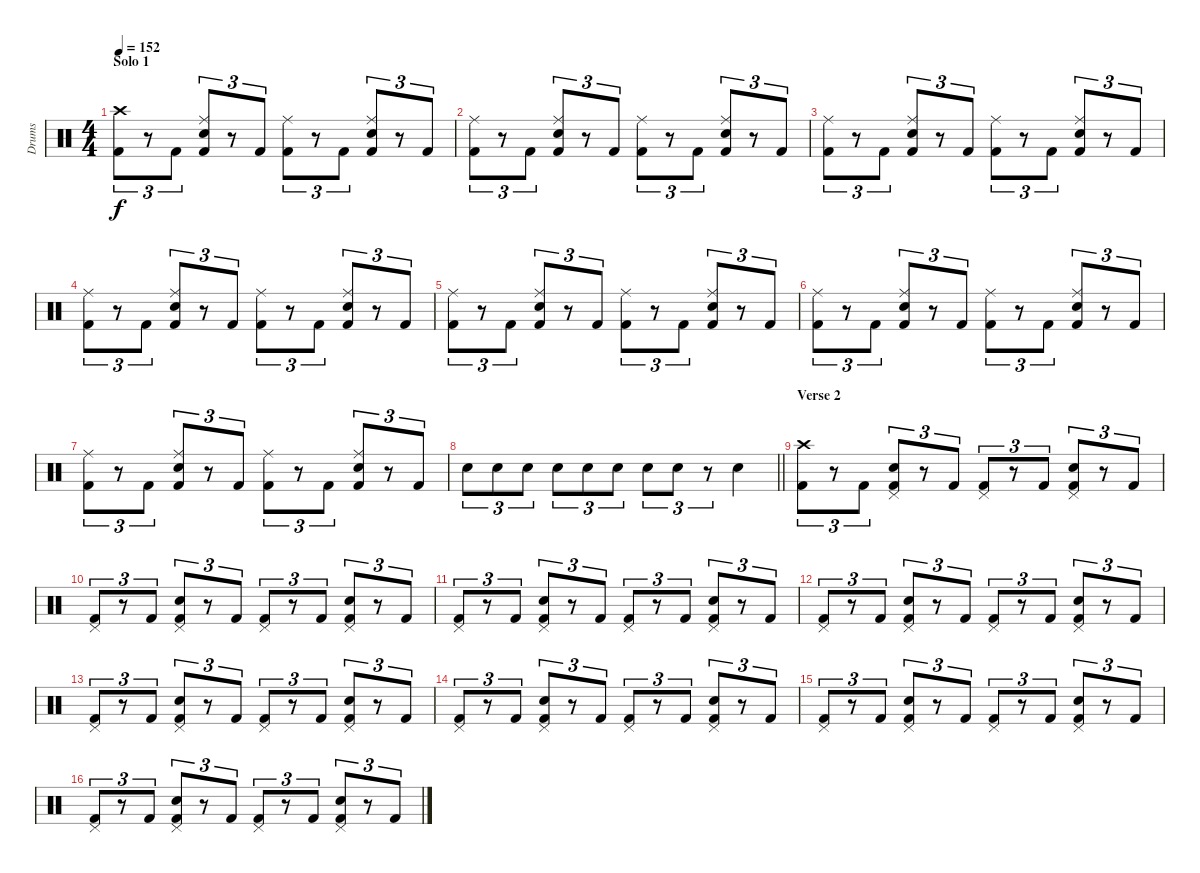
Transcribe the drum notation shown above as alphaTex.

\track ("Drums" "Drums") {instrument percussion}
\staff {score}
\articulation defaults
\ts (4 4)
\section ("" "Solo 1")
\tempo 152
\clef neutral
\ks c
("Crash high (hit)" "Kick (hit) 2").8{tu (3 2) dy f} r.8{tu (3 2)} "Kick (hit) 2".8{tu (3 2)} ("Ride (middle)" "Snare (hit) 2" "Kick (hit) 2").8{tu (3 2)} r.8{tu (3 2)} "Kick (hit) 2".8{tu (3 2)} ("Ride (middle)" "Kick (hit) 2").8{tu (3 2)} r.8{tu (3 2)} "Kick (hit) 2".8{tu (3 2)} ("Ride (middle)" "Snare (hit) 2" "Kick (hit) 2").8{tu (3 2)} r.8{tu (3 2)} "Kick (hit) 2".8{tu (3 2)} |
("Ride (middle)" "Kick (hit) 2").8{tu (3 2)} r.8{tu (3 2)} "Kick (hit) 2".8{tu (3 2)} ("Ride (middle)" "Snare (hit) 2" "Kick (hit) 2").8{tu (3 2)} r.8{tu (3 2)} "Kick (hit) 2".8{tu (3 2)} ("Ride (middle)" "Kick (hit) 2").8{tu (3 2)} r.8{tu (3 2)} "Kick (hit) 2".8{tu (3 2)} ("Ride (middle)" "Snare (hit) 2" "Kick (hit) 2").8{tu (3 2)} r.8{tu (3 2)} "Kick (hit) 2".8{tu (3 2)} |
("Ride (middle)" "Kick (hit) 2").8{tu (3 2)} r.8{tu (3 2)} "Kick (hit) 2".8{tu (3 2)} ("Ride (middle)" "Snare (hit) 2" "Kick (hit) 2").8{tu (3 2)} r.8{tu (3 2)} "Kick (hit) 2".8{tu (3 2)} ("Ride (middle)" "Kick (hit) 2").8{tu (3 2)} r.8{tu (3 2)} "Kick (hit) 2".8{tu (3 2)} ("Ride (middle)" "Snare (hit) 2" "Kick (hit) 2").8{tu (3 2)} r.8{tu (3 2)} "Kick (hit) 2".8{tu (3 2)} |
("Ride (middle)" "Kick (hit) 2").8{tu (3 2)} r.8{tu (3 2)} "Kick (hit) 2".8{tu (3 2)} ("Ride (middle)" "Snare (hit) 2" "Kick (hit) 2").8{tu (3 2)} r.8{tu (3 2)} "Kick (hit) 2".8{tu (3 2)} ("Ride (middle)" "Kick (hit) 2").8{tu (3 2)} r.8{tu (3 2)} "Kick (hit) 2".8{tu (3 2)} ("Ride (middle)" "Snare (hit) 2" "Kick (hit) 2").8{tu (3 2)} r.8{tu (3 2)} "Kick (hit) 2".8{tu (3 2)} |
("Ride (middle)" "Kick (hit) 2").8{tu (3 2)} r.8{tu (3 2)} "Kick (hit) 2".8{tu (3 2)} ("Ride (middle)" "Snare (hit) 2" "Kick (hit) 2").8{tu (3 2)} r.8{tu (3 2)} "Kick (hit) 2".8{tu (3 2)} ("Ride (middle)" "Kick (hit) 2").8{tu (3 2)} r.8{tu (3 2)} "Kick (hit) 2".8{tu (3 2)} ("Ride (middle)" "Snare (hit) 2" "Kick (hit) 2").8{tu (3 2)} r.8{tu (3 2)} "Kick (hit) 2".8{tu (3 2)} |
("Ride (middle)" "Kick (hit) 2").8{tu (3 2)} r.8{tu (3 2)} "Kick (hit) 2".8{tu (3 2)} ("Ride (middle)" "Snare (hit) 2" "Kick (hit) 2").8{tu (3 2)} r.8{tu (3 2)} "Kick (hit) 2".8{tu (3 2)} ("Ride (middle)" "Kick (hit) 2").8{tu (3 2)} r.8{tu (3 2)} "Kick (hit) 2".8{tu (3 2)} ("Ride (middle)" "Snare (hit) 2" "Kick (hit) 2").8{tu (3 2)} r.8{tu (3 2)} "Kick (hit) 2".8{tu (3 2)} |
("Ride (middle)" "Kick (hit) 2").8{tu (3 2)} r.8{tu (3 2)} "Kick (hit) 2".8{tu (3 2)} ("Ride (middle)" "Snare (hit) 2" "Kick (hit) 2").8{tu (3 2)} r.8{tu (3 2)} "Kick (hit) 2".8{tu (3 2)} ("Ride (middle)" "Kick (hit) 2").8{tu (3 2)} r.8{tu (3 2)} "Kick (hit) 2".8{tu (3 2)} ("Ride (middle)" "Snare (hit) 2" "Kick (hit) 2").8{tu (3 2)} r.8{tu (3 2)} "Kick (hit) 2".8{tu (3 2)} |
\barLineRight lightlight "Snare (hit) 2".8{tu (3 2)} "Snare (hit) 2".8{tu (3 2)} "Snare (hit) 2".8{tu (3 2)} "Snare (hit) 2".8{tu (3 2)} "Snare (hit) 2".8{tu (3 2)} "Snare (hit) 2".8{tu (3 2)} "Snare (hit) 2".8{tu (3 2)} "Snare (hit) 2".8{tu (3 2)}
r.8{tu (3 2)} "Snare (hit) 2".4 |
\section ("" "Verse 2")
("Crash high (hit)" "Kick (hit) 2").8{tu (3 2)} r.8{tu (3 2)} "Kick (hit) 2".8{tu (3 2)} ("Pedal Hi-Hat (hit)" "Snare (hit) 2" "Kick (hit) 2").8{tu (3 2)} r.8{tu (3 2)} "Kick (hit) 2".8{tu (3 2)} ("Pedal Hi-Hat (hit)" "Kick (hit) 2").8{tu (3 2)} r.8{tu (3 2)} "Kick (hit) 2".8{tu (3 2)} ("Pedal Hi-Hat (hit)" "Snare (hit) 2" "Kick (hit) 2").8{tu (3 2)} r.8{tu (3 2)} "Kick (hit) 2".8{tu (3 2)} |
("Pedal Hi-Hat (hit)" "Kick (hit) 2").8{tu (3 2)} r.8{tu (3 2)} "Kick (hit) 2".8{tu (3 2)} ("Pedal Hi-Hat (hit)" "Snare (hit) 2" "Kick (hit) 2").8{tu (3 2)} r.8{tu (3 2)} "Kick (hit) 2".8{tu (3 2)} ("Pedal Hi-Hat (hit)" "Kick (hit) 2").8{tu (3 2)} r.8{tu (3 2)} "Kick (hit) 2".8{tu (3 2)} ("Pedal Hi-Hat (hit)" "Snare (hit) 2" "Kick (hit) 2").8{tu (3 2)} r.8{tu (3 2)} "Kick (hit) 2".8{tu (3 2)} |
("Pedal Hi-Hat (hit)" "Kick (hit) 2").8{tu (3 2)} r.8{tu (3 2)} "Kick (hit) 2".8{tu (3 2)} ("Pedal Hi-Hat (hit)" "Snare (hit) 2" "Kick (hit) 2").8{tu (3 2)} r.8{tu (3 2)} "Kick (hit) 2".8{tu (3 2)} ("Pedal Hi-Hat (hit)" "Kick (hit) 2").8{tu (3 2)} r.8{tu (3 2)} "Kick (hit) 2".8{tu (3 2)} ("Pedal Hi-Hat (hit)" "Snare (hit) 2" "Kick (hit) 2").8{tu (3 2)} r.8{tu (3 2)} "Kick (hit) 2".8{tu (3 2)} |
("Pedal Hi-Hat (hit)" "Kick (hit) 2").8{tu (3 2)} r.8{tu (3 2)} "Kick (hit) 2".8{tu (3 2)} ("Pedal Hi-Hat (hit)" "Snare (hit) 2" "Kick (hit) 2").8{tu (3 2)} r.8{tu (3 2)} "Kick (hit) 2".8{tu (3 2)} ("Pedal Hi-Hat (hit)" "Kick (hit) 2").8{tu (3 2)} r.8{tu (3 2)} "Kick (hit) 2".8{tu (3 2)} ("Pedal Hi-Hat (hit)" "Snare (hit) 2" "Kick (hit) 2").8{tu (3 2)} r.8{tu (3 2)} "Kick (hit) 2".8{tu (3 2)} |
("Pedal Hi-Hat (hit)" "Kick (hit) 2").8{tu (3 2)} r.8{tu (3 2)} "Kick (hit) 2".8{tu (3 2)} ("Pedal Hi-Hat (hit)" "Snare (hit) 2" "Kick (hit) 2").8{tu (3 2)} r.8{tu (3 2)} "Kick (hit) 2".8{tu (3 2)} ("Pedal Hi-Hat (hit)" "Kick (hit) 2").8{tu (3 2)} r.8{tu (3 2)} "Kick (hit) 2".8{tu (3 2)} ("Pedal Hi-Hat (hit)" "Snare (hit) 2" "Kick (hit) 2").8{tu (3 2)} r.8{tu (3 2)} "Kick (hit) 2".8{tu (3 2)} |
("Pedal Hi-Hat (hit)" "Kick (hit) 2").8{tu (3 2)} r.8{tu (3 2)} "Kick (hit) 2".8{tu (3 2)} ("Pedal Hi-Hat (hit)" "Snare (hit) 2" "Kick (hit) 2").8{tu (3 2)} r.8{tu (3 2)} "Kick (hit) 2".8{tu (3 2)} ("Pedal Hi-Hat (hit)" "Kick (hit) 2").8{tu (3 2)} r.8{tu (3 2)} "Kick (hit) 2".8{tu (3 2)} ("Pedal Hi-Hat (hit)" "Snare (hit) 2" "Kick (hit) 2").8{tu (3 2)} r.8{tu (3 2)} "Kick (hit) 2".8{tu (3 2)} |
("Pedal Hi-Hat (hit)" "Kick (hit) 2").8{tu (3 2)} r.8{tu (3 2)} "Kick (hit) 2".8{tu (3 2)} ("Pedal Hi-Hat (hit)" "Snare (hit) 2" "Kick (hit) 2").8{tu (3 2)} r.8{tu (3 2)} "Kick (hit) 2".8{tu (3 2)} ("Pedal Hi-Hat (hit)" "Kick (hit) 2").8{tu (3 2)} r.8{tu (3 2)} "Kick (hit) 2".8{tu (3 2)} ("Pedal Hi-Hat (hit)" "Snare (hit) 2" "Kick (hit) 2").8{tu (3 2)} r.8{tu (3 2)} "Kick (hit) 2".8{tu (3 2)} |
("Pedal Hi-Hat (hit)" "Kick (hit) 2").8{tu (3 2)} r.8{tu (3 2)} "Kick (hit) 2".8{tu (3 2)} ("Pedal Hi-Hat (hit)" "Snare (hit) 2" "Kick (hit) 2").8{tu (3 2)} r.8{tu (3 2)} "Kick (hit) 2".8{tu (3 2)} ("Pedal Hi-Hat (hit)" "Kick (hit) 2").8{tu (3 2)} r.8{tu (3 2)} "Kick (hit) 2".8{tu (3 2)} ("Pedal Hi-Hat (hit)" "Snare (hit) 2" "Kick (hit) 2").8{tu (3 2)} r.8{tu (3 2)} "Kick (hit) 2".8{tu (3 2)}
